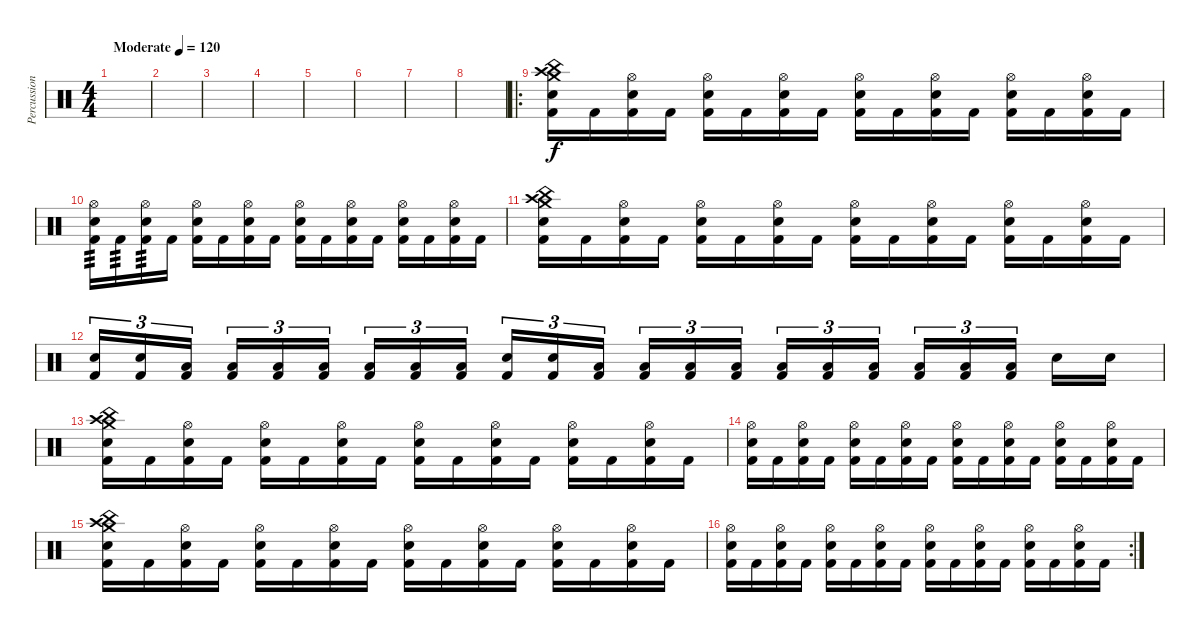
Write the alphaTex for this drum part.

\track ("Percussions" "Percussion") {instrument percussion}
\staff {score}
\articulation defaults
\ts (4 4)
\tempo (120 "Moderate")
\clef neutral
\ks c
|
|
|
|
|
|
|
|
\ro
("Crash medium (hit)" "China (hit)" "Crash high (hit)" "Electric Snare (hit)" "Kick (hit) 2").16 "Kick (hit) 2".16 ("Hi-Hat (open)" "Electric Snare (hit)" "Kick (hit) 2").16 "Kick (hit) 2".16 ("Hi-Hat (open)" "Electric Snare (hit)" "Kick (hit) 2").16 "Kick (hit) 2".16 ("Hi-Hat (open)" "Electric Snare (hit)" "Kick (hit) 2").16 "Kick (hit) 2".16 ("Hi-Hat (open)" "Electric Snare (hit)" "Kick (hit) 2").16 "Kick (hit) 2".16 ("Hi-Hat (open)" "Electric Snare (hit)" "Kick (hit) 2").16 "Kick (hit) 2".16 ("Hi-Hat (open)" "Electric Snare (hit)" "Kick (hit) 2").16 "Kick (hit) 2".16 ("Hi-Hat (open)" "Electric Snare (hit)" "Kick (hit) 2").16 "Kick (hit) 2".16 |
("Hi-Hat (open)" "Electric Snare (hit)" "Kick (hit) 2").16{tp 3} "Kick (hit) 2".16{tp 3} ("Hi-Hat (open)" "Electric Snare (hit)" "Kick (hit) 2").16{tp 3} "Kick (hit) 2".16 ("Hi-Hat (open)" "Electric Snare (hit)" "Kick (hit) 2").16 "Kick (hit) 2".16 ("Hi-Hat (open)" "Electric Snare (hit)" "Kick (hit) 2").16 "Kick (hit) 2".16 ("Hi-Hat (open)" "Electric Snare (hit)" "Kick (hit) 2").16 "Kick (hit) 2".16 ("Hi-Hat (open)" "Electric Snare (hit)" "Kick (hit) 2").16 "Kick (hit) 2".16 ("Hi-Hat (open)" "Electric Snare (hit)" "Kick (hit) 2").16 "Kick (hit) 2".16 ("Hi-Hat (open)" "Electric Snare (hit)" "Kick (hit) 2").16 "Kick (hit) 2".16 |
("Crash medium (hit)" "China (hit)" "Crash high (hit)" "Electric Snare (hit)" "Kick (hit) 2").16 "Kick (hit) 2".16 ("Hi-Hat (open)" "Electric Snare (hit)" "Kick (hit) 2").16 "Kick (hit) 2".16 ("Hi-Hat (open)" "Electric Snare (hit)" "Kick (hit) 2").16 "Kick (hit) 2".16 ("Hi-Hat (open)" "Electric Snare (hit)" "Kick (hit) 2").16 "Kick (hit) 2".16 ("Hi-Hat (open)" "Electric Snare (hit)" "Kick (hit) 2").16 "Kick (hit) 2".16 ("Hi-Hat (open)" "Electric Snare (hit)" "Kick (hit) 2").16 "Kick (hit) 2".16 ("Hi-Hat (open)" "Electric Snare (hit)" "Kick (hit) 2").16 "Kick (hit) 2".16 ("Hi-Hat (open)" "Electric Snare (hit)" "Kick (hit) 2").16 "Kick (hit) 2".16 |
("Electric Snare (hit)" "Kick (hit) 2").16{tu (3 2)} ("Electric Snare (hit)" "Kick (hit) 2").16{tu (3 2)} ("Low Floor Tom (hit)" "Kick (hit) 2").16{tu (3 2) beam splitsecondary} ("Low Tom (hit)" "Kick (hit) 2").16{tu (3 2)} ("Low Tom (hit)" "Kick (hit) 2").16{tu (3 2)} ("Low Tom (hit)" "Kick (hit) 2").16{tu (3 2)} ("Low Tom (hit)" "Kick (hit) 2").16{tu (3 2)} ("Low Tom (hit)" "Kick (hit) 2").16{tu (3 2)} ("Low Tom (hit)" "Kick (hit) 2").16{tu (3 2) beam splitsecondary} ("Electric Snare (hit)" "Kick (hit) 2").16{tu (3 2)} ("Electric Snare (hit)" "Kick (hit) 2").16{tu (3 2)} ("Low Floor Tom (hit)" "Kick (hit) 2").16{tu (3 2)} ("Low Tom (hit)" "Kick (hit) 2").16{tu (3 2)} ("Low Tom (hit)" "Kick (hit) 2").16{tu (3 2)} ("Low Tom (hit)" "Kick (hit) 2").16{tu (3 2) beam splitsecondary} ("Low Tom (hit)" "Kick (hit) 2").16{tu (3 2)} ("Low Tom (hit)" "Kick (hit) 2").16{tu (3 2)} ("Low Tom (hit)" "Kick (hit) 2").16{tu (3 2)} ("Low Tom (hit)" "Kick (hit) 2").16{tu (3 2)} ("Low Tom (hit)" "Kick (hit) 2").16{tu (3 2)} ("Low Tom (hit)" "Kick (hit) 2").16{tu (3 2) beam splitsecondary} "Electric Snare (hit)".16 "Electric Snare (hit)".16 |
("Crash medium (hit)" "China (hit)" "Crash high (hit)" "Electric Snare (hit)" "Kick (hit) 2").16 "Kick (hit) 2".16 ("Hi-Hat (open)" "Electric Snare (hit)" "Kick (hit) 2").16 "Kick (hit) 2".16 ("Hi-Hat (open)" "Electric Snare (hit)" "Kick (hit) 2").16 "Kick (hit) 2".16 ("Hi-Hat (open)" "Electric Snare (hit)" "Kick (hit) 2").16 "Kick (hit) 2".16 ("Hi-Hat (open)" "Electric Snare (hit)" "Kick (hit) 2").16 "Kick (hit) 2".16 ("Hi-Hat (open)" "Electric Snare (hit)" "Kick (hit) 2").16 "Kick (hit) 2".16 ("Hi-Hat (open)" "Electric Snare (hit)" "Kick (hit) 2").16 "Kick (hit) 2".16 ("Hi-Hat (open)" "Electric Snare (hit)" "Kick (hit) 2").16 "Kick (hit) 2".16 |
("Hi-Hat (open)" "Electric Snare (hit)" "Kick (hit) 2").16 "Kick (hit) 2".16 ("Hi-Hat (open)" "Electric Snare (hit)" "Kick (hit) 2").16 "Kick (hit) 2".16 ("Hi-Hat (open)" "Electric Snare (hit)" "Kick (hit) 2").16 "Kick (hit) 2".16 ("Hi-Hat (open)" "Electric Snare (hit)" "Kick (hit) 2").16 "Kick (hit) 2".16 ("Hi-Hat (open)" "Electric Snare (hit)" "Kick (hit) 2").16 "Kick (hit) 2".16 ("Hi-Hat (open)" "Electric Snare (hit)" "Kick (hit) 2").16 "Kick (hit) 2".16 ("Hi-Hat (open)" "Electric Snare (hit)" "Kick (hit) 2").16 "Kick (hit) 2".16 ("Hi-Hat (open)" "Electric Snare (hit)" "Kick (hit) 2").16 "Kick (hit) 2".16 |
("Crash medium (hit)" "China (hit)" "Crash high (hit)" "Electric Snare (hit)" "Kick (hit) 2").16 "Kick (hit) 2".16 ("Hi-Hat (open)" "Electric Snare (hit)" "Kick (hit) 2").16 "Kick (hit) 2".16 ("Hi-Hat (open)" "Electric Snare (hit)" "Kick (hit) 2").16 "Kick (hit) 2".16 ("Hi-Hat (open)" "Electric Snare (hit)" "Kick (hit) 2").16 "Kick (hit) 2".16 ("Hi-Hat (open)" "Electric Snare (hit)" "Kick (hit) 2").16 "Kick (hit) 2".16 ("Hi-Hat (open)" "Electric Snare (hit)" "Kick (hit) 2").16 "Kick (hit) 2".16 ("Hi-Hat (open)" "Electric Snare (hit)" "Kick (hit) 2").16 "Kick (hit) 2".16 ("Hi-Hat (open)" "Electric Snare (hit)" "Kick (hit) 2").16 "Kick (hit) 2".16 |
\rc 2
("Hi-Hat (open)" "Electric Snare (hit)" "Kick (hit) 2").16 "Kick (hit) 2".16 ("Hi-Hat (open)" "Electric Snare (hit)" "Kick (hit) 2").16 "Kick (hit) 2".16 ("Hi-Hat (open)" "Electric Snare (hit)" "Kick (hit) 2").16 "Kick (hit) 2".16 ("Hi-Hat (open)" "Electric Snare (hit)" "Kick (hit) 2").16 "Kick (hit) 2".16 ("Hi-Hat (open)" "Electric Snare (hit)" "Kick (hit) 2").16 "Kick (hit) 2".16 ("Hi-Hat (open)" "Electric Snare (hit)" "Kick (hit) 2").16 "Kick (hit) 2".16 ("Hi-Hat (open)" "Electric Snare (hit)" "Kick (hit) 2").16 "Kick (hit) 2".16 ("Hi-Hat (open)" "Electric Snare (hit)" "Kick (hit) 2").16 "Kick (hit) 2".16
